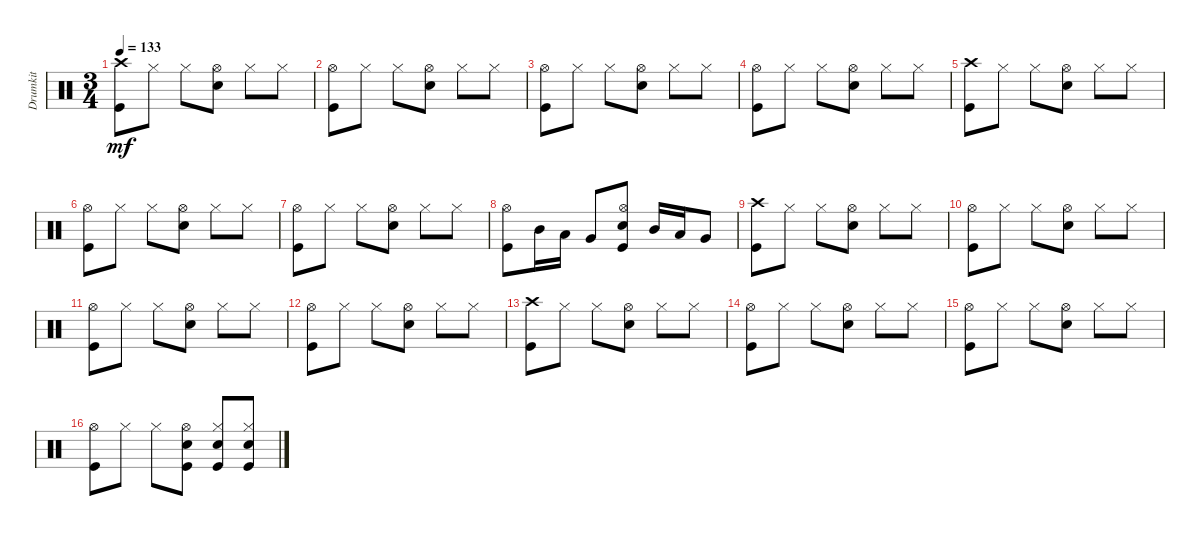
\track ("Drumkit" "Drumkit") {instrument percussion}
\staff {score}
\articulation defaults
\ts (3 4)
\tempo 133
\clef neutral
\ks c
("Crash high (hit)" "Kick (hit)").8{dy mf} "Hi-Hat (closed)".8 "Hi-Hat (closed)".8 ("Hi-Hat (open)" "Snare (hit) 2").8 "Hi-Hat (closed)".8 "Hi-Hat (closed)".8 |
("Kick (hit)" "Hi-Hat (open)").8 "Hi-Hat (closed)".8 "Hi-Hat (closed)".8 ("Hi-Hat (open)" "Snare (hit) 2").8 "Hi-Hat (closed)".8 "Hi-Hat (closed)".8 |
("Kick (hit)" "Hi-Hat (open)").8 "Hi-Hat (closed)".8 "Hi-Hat (closed)".8 ("Hi-Hat (open)" "Snare (hit) 2").8 "Hi-Hat (closed)".8 "Hi-Hat (closed)".8 |
("Kick (hit)" "Hi-Hat (open)").8 "Hi-Hat (closed)".8 "Hi-Hat (closed)".8 ("Hi-Hat (open)" "Snare (hit) 2").8 "Hi-Hat (closed)".8 "Hi-Hat (closed)".8 |
("Crash high (hit)" "Kick (hit)").8 "Hi-Hat (closed)".8 "Hi-Hat (closed)".8 ("Hi-Hat (open)" "Snare (hit) 2").8 "Hi-Hat (closed)".8 "Hi-Hat (closed)".8 |
("Kick (hit)" "Hi-Hat (open)").8 "Hi-Hat (closed)".8 "Hi-Hat (closed)".8 ("Hi-Hat (open)" "Snare (hit) 2").8 "Hi-Hat (closed)".8 "Hi-Hat (closed)".8 |
("Kick (hit)" "Hi-Hat (open)").8 "Hi-Hat (closed)".8 "Hi-Hat (closed)".8 ("Hi-Hat (open)" "Snare (hit) 2").8 "Hi-Hat (closed)".8 "Hi-Hat (closed)".8 |
("Kick (hit)" "Hi-Hat (open)").8 "Mid Tom (hit)".16 "Low Tom (hit)".16 "Very Low Tom (hit)".8 ("Hi-Hat (open)" "Snare (hit) 2" "Kick (hit)").8 "Mid Tom (hit)".16 "Low Tom (hit)".16 "Very Low Tom (hit)".8 |
("Crash high (hit)" "Kick (hit)").8 "Hi-Hat (closed)".8 "Hi-Hat (closed)".8 ("Hi-Hat (open)" "Snare (hit) 2").8 "Hi-Hat (closed)".8 "Hi-Hat (closed)".8 |
("Kick (hit)" "Hi-Hat (open)").8 "Hi-Hat (closed)".8 "Hi-Hat (closed)".8 ("Hi-Hat (open)" "Snare (hit) 2").8 "Hi-Hat (closed)".8 "Hi-Hat (closed)".8 |
("Kick (hit)" "Hi-Hat (open)").8 "Hi-Hat (closed)".8 "Hi-Hat (closed)".8 ("Hi-Hat (open)" "Snare (hit) 2").8 "Hi-Hat (closed)".8 "Hi-Hat (closed)".8 |
("Kick (hit)" "Hi-Hat (open)").8 "Hi-Hat (closed)".8 "Hi-Hat (closed)".8 ("Hi-Hat (open)" "Snare (hit) 2").8 "Hi-Hat (closed)".8 "Hi-Hat (closed)".8 |
("Crash high (hit)" "Kick (hit)").8 "Hi-Hat (closed)".8 "Hi-Hat (closed)".8 ("Hi-Hat (open)" "Snare (hit) 2").8 "Hi-Hat (closed)".8 "Hi-Hat (closed)".8 |
("Kick (hit)" "Hi-Hat (open)").8 "Hi-Hat (closed)".8 "Hi-Hat (closed)".8 ("Hi-Hat (open)" "Snare (hit) 2").8 "Hi-Hat (closed)".8 "Hi-Hat (closed)".8 |
("Kick (hit)" "Hi-Hat (open)").8 "Hi-Hat (closed)".8 "Hi-Hat (closed)".8 ("Hi-Hat (open)" "Snare (hit) 2").8 "Hi-Hat (closed)".8 "Hi-Hat (closed)".8 |
("Kick (hit)" "Hi-Hat (open)").8 "Hi-Hat (closed)".8 "Hi-Hat (closed)".8 ("Hi-Hat (open)" "Snare (hit) 2" "Kick (hit)").8 ("Hi-Hat (closed)" "Kick (hit)" "Snare (hit) 2").8 ("Hi-Hat (closed)" "Kick (hit)" "Snare (hit) 2").8
